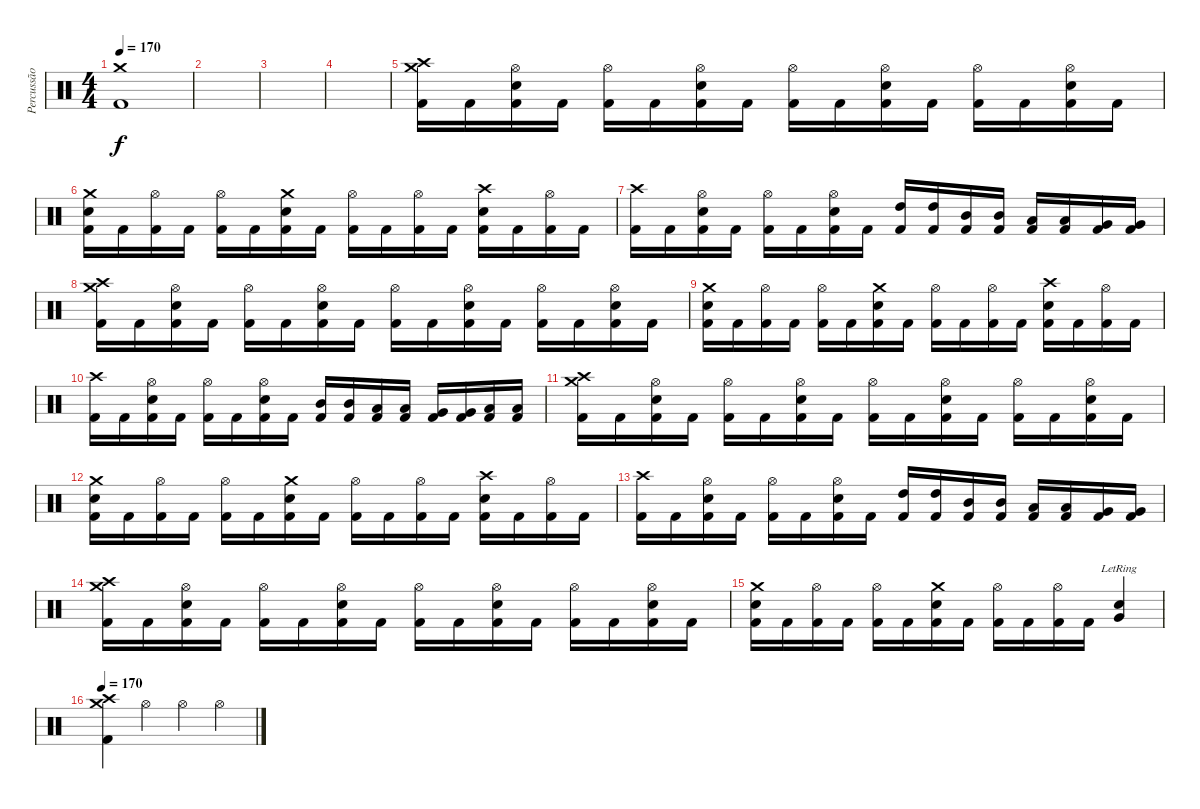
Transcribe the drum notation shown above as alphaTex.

\track ("Percussão" "Percussão") {instrument percussion}
\staff {score}
\articulation defaults
\ts (4 4)
\tempo 170
\tempo 200
\tempo 170
\clef neutral
\ks c
("Crash medium (hit)" "Kick (hit) 2").1{dy f} |
|
|
|
("Crash high (hit)" "Crash medium (hit)" "Kick (hit) 2").16 "Kick (hit) 2".16 ("Hi-Hat (open)" "Electric Snare (hit)" "Kick (hit) 2").16 "Kick (hit) 2".16 ("Hi-Hat (open)" "Kick (hit) 2").16 "Kick (hit) 2".16 ("Hi-Hat (open)" "Electric Snare (hit)" "Kick (hit) 2").16 "Kick (hit) 2".16 ("Hi-Hat (open)" "Kick (hit) 2").16 "Kick (hit) 2".16 ("Hi-Hat (open)" "Electric Snare (hit)" "Kick (hit) 2").16 "Kick (hit) 2".16 ("Hi-Hat (open)" "Kick (hit) 2").16 "Kick (hit) 2".16 ("Hi-Hat (open)" "Electric Snare (hit)" "Kick (hit) 2").16 "Kick (hit) 2".16 |
("Crash medium (hit)" "Electric Snare (hit)" "Kick (hit) 2").16 "Kick (hit) 2".16 ("Hi-Hat (open)" "Kick (hit) 2").16 "Kick (hit) 2".16 ("Hi-Hat (open)" "Kick (hit) 2").16 "Kick (hit) 2".16 ("Crash medium (hit)" "Electric Snare (hit)" "Kick (hit) 2").16 "Kick (hit) 2".16 ("Hi-Hat (open)" "Kick (hit) 2").16 "Kick (hit) 2".16 ("Hi-Hat (open)" "Kick (hit) 2").16 "Kick (hit) 2".16 ("Crash high (hit)" "Electric Snare (hit)" "Kick (hit) 2").16 "Kick (hit) 2".16 ("Hi-Hat (open)" "Kick (hit) 2").16 "Kick (hit) 2".16 |
("Crash high (hit)" "Kick (hit) 2").16 "Kick (hit) 2".16 ("Hi-Hat (open)" "Electric Snare (hit)" "Kick (hit) 2").16 "Kick (hit) 2".16 ("Hi-Hat (open)" "Kick (hit) 2").16 "Kick (hit) 2".16 ("Hi-Hat (open)" "Electric Snare (hit)" "Kick (hit) 2").16 "Kick (hit) 2".16 ("High Tom (hit)" "Kick (hit) 2").16 ("High Tom (hit)" "Kick (hit) 2").16 ("Mid Tom (hit)" "Kick (hit) 2").16 ("Mid Tom (hit)" "Kick (hit) 2").16 ("Low Tom (hit)" "Kick (hit) 2").16 ("Low Tom (hit)" "Kick (hit) 2").16 ("Very Low Tom (hit)" "Kick (hit) 2").16 ("Very Low Tom (hit)" "Kick (hit) 2").16 |
("Crash high (hit)" "Crash medium (hit)" "Kick (hit) 2").16 "Kick (hit) 2".16 ("Hi-Hat (open)" "Electric Snare (hit)" "Kick (hit) 2").16 "Kick (hit) 2".16 ("Hi-Hat (open)" "Kick (hit) 2").16 "Kick (hit) 2".16 ("Hi-Hat (open)" "Electric Snare (hit)" "Kick (hit) 2").16 "Kick (hit) 2".16 ("Hi-Hat (open)" "Kick (hit) 2").16 "Kick (hit) 2".16 ("Hi-Hat (open)" "Electric Snare (hit)" "Kick (hit) 2").16 "Kick (hit) 2".16 ("Hi-Hat (open)" "Kick (hit) 2").16 "Kick (hit) 2".16 ("Hi-Hat (open)" "Electric Snare (hit)" "Kick (hit) 2").16 "Kick (hit) 2".16 |
("Crash medium (hit)" "Electric Snare (hit)" "Kick (hit) 2").16 "Kick (hit) 2".16 ("Hi-Hat (open)" "Kick (hit) 2").16 "Kick (hit) 2".16 ("Hi-Hat (open)" "Kick (hit) 2").16 "Kick (hit) 2".16 ("Crash medium (hit)" "Electric Snare (hit)" "Kick (hit) 2").16 "Kick (hit) 2".16 ("Hi-Hat (open)" "Kick (hit) 2").16 "Kick (hit) 2".16 ("Hi-Hat (open)" "Kick (hit) 2").16 "Kick (hit) 2".16 ("Crash high (hit)" "Electric Snare (hit)" "Kick (hit) 2").16 "Kick (hit) 2".16 ("Hi-Hat (open)" "Kick (hit) 2").16 "Kick (hit) 2".16 |
("Crash high (hit)" "Kick (hit) 2").16 "Kick (hit) 2".16 ("Hi-Hat (open)" "Electric Snare (hit)" "Kick (hit) 2").16 "Kick (hit) 2".16 ("Hi-Hat (open)" "Kick (hit) 2").16 "Kick (hit) 2".16 ("Hi-Hat (open)" "Electric Snare (hit)" "Kick (hit) 2").16 "Kick (hit) 2".16 ("Mid Tom (hit)" "Kick (hit) 2").16 ("Mid Tom (hit)" "Kick (hit) 2").16 ("Low Tom (hit)" "Kick (hit) 2").16 ("Low Tom (hit)" "Kick (hit) 2").16 ("Very Low Tom (hit)" "Kick (hit) 2").16 ("Very Low Tom (hit)" "Kick (hit) 2").16 ("Low Floor Tom (hit)" "Kick (hit) 2").16 ("Low Floor Tom (hit)" "Kick (hit) 2").16 |
("Crash high (hit)" "Crash medium (hit)" "Kick (hit) 2").16 "Kick (hit) 2".16 ("Hi-Hat (open)" "Electric Snare (hit)" "Kick (hit) 2").16 "Kick (hit) 2".16 ("Hi-Hat (open)" "Kick (hit) 2").16 "Kick (hit) 2".16 ("Hi-Hat (open)" "Electric Snare (hit)" "Kick (hit) 2").16 "Kick (hit) 2".16 ("Hi-Hat (open)" "Kick (hit) 2").16 "Kick (hit) 2".16 ("Hi-Hat (open)" "Electric Snare (hit)" "Kick (hit) 2").16 "Kick (hit) 2".16 ("Hi-Hat (open)" "Kick (hit) 2").16 "Kick (hit) 2".16 ("Hi-Hat (open)" "Electric Snare (hit)" "Kick (hit) 2").16 "Kick (hit) 2".16 |
("Crash medium (hit)" "Electric Snare (hit)" "Kick (hit) 2").16 "Kick (hit) 2".16 ("Hi-Hat (open)" "Kick (hit) 2").16 "Kick (hit) 2".16 ("Hi-Hat (open)" "Kick (hit) 2").16 "Kick (hit) 2".16 ("Crash medium (hit)" "Electric Snare (hit)" "Kick (hit) 2").16 "Kick (hit) 2".16 ("Hi-Hat (open)" "Kick (hit) 2").16 "Kick (hit) 2".16 ("Hi-Hat (open)" "Kick (hit) 2").16 "Kick (hit) 2".16 ("Crash high (hit)" "Electric Snare (hit)" "Kick (hit) 2").16 "Kick (hit) 2".16 ("Hi-Hat (open)" "Kick (hit) 2").16 "Kick (hit) 2".16 |
("Crash high (hit)" "Kick (hit) 2").16 "Kick (hit) 2".16 ("Hi-Hat (open)" "Electric Snare (hit)" "Kick (hit) 2").16 "Kick (hit) 2".16 ("Hi-Hat (open)" "Kick (hit) 2").16 "Kick (hit) 2".16 ("Hi-Hat (open)" "Electric Snare (hit)" "Kick (hit) 2").16 "Kick (hit) 2".16 ("High Tom (hit)" "Kick (hit) 2").16 ("High Tom (hit)" "Kick (hit) 2").16 ("Mid Tom (hit)" "Kick (hit) 2").16 ("Mid Tom (hit)" "Kick (hit) 2").16 ("Low Tom (hit)" "Kick (hit) 2").16 ("Low Tom (hit)" "Kick (hit) 2").16 ("Very Low Tom (hit)" "Kick (hit) 2").16 ("Very Low Tom (hit)" "Kick (hit) 2").16 |
("Crash high (hit)" "Crash medium (hit)" "Kick (hit) 2").16 "Kick (hit) 2".16 ("Hi-Hat (open)" "Electric Snare (hit)" "Kick (hit) 2").16 "Kick (hit) 2".16 ("Hi-Hat (open)" "Kick (hit) 2").16 "Kick (hit) 2".16 ("Hi-Hat (open)" "Electric Snare (hit)" "Kick (hit) 2").16 "Kick (hit) 2".16 ("Hi-Hat (open)" "Kick (hit) 2").16 "Kick (hit) 2".16 ("Hi-Hat (open)" "Electric Snare (hit)" "Kick (hit) 2").16 "Kick (hit) 2".16 ("Hi-Hat (open)" "Kick (hit) 2").16 "Kick (hit) 2".16 ("Hi-Hat (open)" "Electric Snare (hit)" "Kick (hit) 2").16 "Kick (hit) 2".16 |
("Crash medium (hit)" "Electric Snare (hit)" "Kick (hit) 2").16 "Kick (hit) 2".16 ("Hi-Hat (open)" "Kick (hit) 2").16 "Kick (hit) 2".16 ("Hi-Hat (open)" "Kick (hit) 2").16 "Kick (hit) 2".16 ("Crash medium (hit)" "Electric Snare (hit)" "Kick (hit) 2").16 "Kick (hit) 2".16 ("Hi-Hat (open)" "Kick (hit) 2").16 "Kick (hit) 2".16 ("Hi-Hat (open)" "Kick (hit) 2").16 "Kick (hit) 2".16 ("Electric Snare (hit)"{lr} "Very Low Tom (hit)"{lr}).4 |
\tempo 170
("Crash medium (hit)" "Crash high (hit)" "Kick (hit) 2").4 "Hi-Hat (open)".4 "Hi-Hat (open)".4 "Hi-Hat (open)".4
